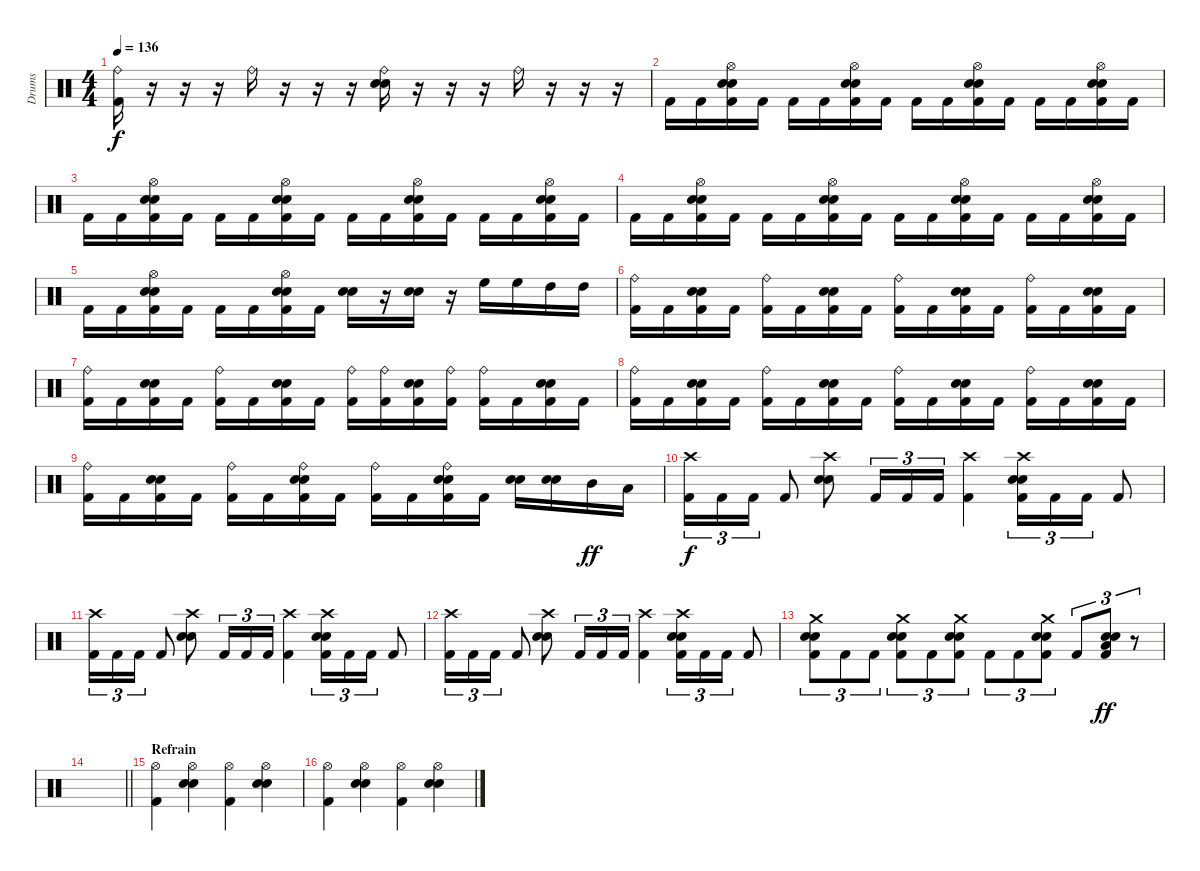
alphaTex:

\track ("Drums" "Drums") {instrument percussion}
\staff {score}
\articulation defaults
\ts (4 4)
\tempo 136
\clef neutral
\ks c
("Ride (bell)" "Kick (hit) 2").16{dy f} r.16 r.16 r.16 "Ride (bell)".16 r.16 r.16 r.16 ("Ride (bell)" "Electric Snare (hit)" "Snare (hit) 2").16 r.16 r.16 r.16 "Ride (bell)".16 r.16 r.16 r.16 |
"Kick (hit) 2".16 "Kick (hit) 2".16 ("Hi-Hat (open)" "Electric Snare (hit)" "Snare (hit) 2" "Kick (hit) 2").16 "Kick (hit) 2".16 "Kick (hit) 2".16 "Kick (hit) 2".16 ("Hi-Hat (open)" "Electric Snare (hit)" "Snare (hit) 2" "Kick (hit) 2").16 "Kick (hit) 2".16 "Kick (hit) 2".16 "Kick (hit) 2".16 ("Hi-Hat (open)" "Electric Snare (hit)" "Snare (hit) 2" "Kick (hit) 2").16 "Kick (hit) 2".16 "Kick (hit) 2".16 "Kick (hit) 2".16 ("Hi-Hat (open)" "Electric Snare (hit)" "Snare (hit) 2" "Kick (hit) 2").16 "Kick (hit) 2".16 |
"Kick (hit) 2".16 "Kick (hit) 2".16 ("Hi-Hat (open)" "Electric Snare (hit)" "Snare (hit) 2" "Kick (hit) 2").16 "Kick (hit) 2".16 "Kick (hit) 2".16 "Kick (hit) 2".16 ("Hi-Hat (open)" "Electric Snare (hit)" "Snare (hit) 2" "Kick (hit) 2").16 "Kick (hit) 2".16 "Kick (hit) 2".16 "Kick (hit) 2".16 ("Hi-Hat (open)" "Electric Snare (hit)" "Snare (hit) 2" "Kick (hit) 2").16 "Kick (hit) 2".16 "Kick (hit) 2".16 "Kick (hit) 2".16 ("Hi-Hat (open)" "Electric Snare (hit)" "Snare (hit) 2" "Kick (hit) 2").16 "Kick (hit) 2".16 |
"Kick (hit) 2".16 "Kick (hit) 2".16 ("Hi-Hat (open)" "Electric Snare (hit)" "Snare (hit) 2" "Kick (hit) 2").16 "Kick (hit) 2".16 "Kick (hit) 2".16 "Kick (hit) 2".16 ("Hi-Hat (open)" "Electric Snare (hit)" "Snare (hit) 2" "Kick (hit) 2").16 "Kick (hit) 2".16 "Kick (hit) 2".16 "Kick (hit) 2".16 ("Hi-Hat (open)" "Electric Snare (hit)" "Snare (hit) 2" "Kick (hit) 2").16 "Kick (hit) 2".16 "Kick (hit) 2".16 "Kick (hit) 2".16 ("Hi-Hat (open)" "Electric Snare (hit)" "Snare (hit) 2" "Kick (hit) 2").16 "Kick (hit) 2".16 |
"Kick (hit) 2".16 "Kick (hit) 2".16 ("Hi-Hat (open)" "Electric Snare (hit)" "Snare (hit) 2" "Kick (hit) 2").16 "Kick (hit) 2".16 "Kick (hit) 2".16 "Kick (hit) 2".16 ("Hi-Hat (open)" "Electric Snare (hit)" "Snare (hit) 2" "Kick (hit) 2").16 "Kick (hit) 2".16 ("Electric Snare (hit)" "Snare (hit) 2").16 r.16 ("Electric Snare (hit)" "Snare (hit) 2").16 r.16 "High Floor Tom (hit)".16 "High Floor Tom (hit)".16 "High Tom (hit)".16 "High Tom (hit)".16 |
("Ride (bell)" "Kick (hit) 2").16 "Kick (hit) 2".16 ("Electric Snare (hit)" "Snare (hit) 2" "Kick (hit) 2").16 "Kick (hit) 2".16 ("Ride (bell)" "Kick (hit) 2").16 "Kick (hit) 2".16 ("Electric Snare (hit)" "Snare (hit) 2" "Kick (hit) 2").16 "Kick (hit) 2".16 ("Ride (bell)" "Kick (hit) 2").16 "Kick (hit) 2".16 ("Electric Snare (hit)" "Snare (hit) 2" "Kick (hit) 2").16 "Kick (hit) 2".16 ("Ride (bell)" "Kick (hit) 2").16 "Kick (hit) 2".16 ("Electric Snare (hit)" "Snare (hit) 2" "Kick (hit) 2").16 "Kick (hit) 2".16 |
("Ride (bell)" "Kick (hit) 2").16 "Kick (hit) 2".16 ("Electric Snare (hit)" "Snare (hit) 2" "Kick (hit) 2").16 "Kick (hit) 2".16 ("Ride (bell)" "Kick (hit) 2").16 "Kick (hit) 2".16 ("Electric Snare (hit)" "Snare (hit) 2" "Kick (hit) 2").16 "Kick (hit) 2".16 ("Ride (bell)" "Kick (hit) 2").16 ("Ride (bell)" "Kick (hit) 2").16 ("Electric Snare (hit)" "Snare (hit) 2" "Kick (hit) 2").16 ("Ride (bell)" "Kick (hit) 2").16 ("Ride (bell)" "Kick (hit) 2").16 "Kick (hit) 2".16 ("Electric Snare (hit)" "Snare (hit) 2" "Kick (hit) 2").16 "Kick (hit) 2".16 |
("Ride (bell)" "Kick (hit) 2").16 "Kick (hit) 2".16 ("Electric Snare (hit)" "Snare (hit) 2" "Kick (hit) 2").16 "Kick (hit) 2".16 ("Ride (bell)" "Kick (hit) 2").16 "Kick (hit) 2".16 ("Electric Snare (hit)" "Snare (hit) 2" "Kick (hit) 2").16 "Kick (hit) 2".16 ("Ride (bell)" "Kick (hit) 2").16 "Kick (hit) 2".16 ("Electric Snare (hit)" "Snare (hit) 2" "Kick (hit) 2").16 "Kick (hit) 2".16 ("Ride (bell)" "Kick (hit) 2").16 "Kick (hit) 2".16 ("Electric Snare (hit)" "Snare (hit) 2" "Kick (hit) 2").16 "Kick (hit) 2".16 |
("Ride (bell)" "Kick (hit) 2").16 "Kick (hit) 2".16 ("Electric Snare (hit)" "Snare (hit) 2" "Kick (hit) 2").16 "Kick (hit) 2".16 ("Ride (bell)" "Kick (hit) 2").16 "Kick (hit) 2".16 ("Ride (bell)" "Electric Snare (hit)" "Snare (hit) 2" "Kick (hit) 2").16 "Kick (hit) 2".16 ("Ride (bell)" "Kick (hit) 2").16 "Kick (hit) 2".16 ("Ride (bell)" "Electric Snare (hit)" "Snare (hit) 2" "Kick (hit) 2").16 "Kick (hit) 2".16 ("Electric Snare (hit)" "Snare (hit) 2").16 ("Electric Snare (hit)" "Snare (hit) 2").16 "Mid Tom (hit)".16{dy ff} "Low Tom (hit)".16 |
("Crash high (hit)" "Kick (hit) 2").16{tu (3 2) dy f} "Kick (hit) 2".16{tu (3 2)} "Kick (hit) 2".16{tu (3 2)} "Kick (hit) 2".8 ("Crash high (hit)" "Electric Snare (hit)" "Snare (hit) 2").8 "Kick (hit) 2".16{tu (3 2)} "Kick (hit) 2".16{tu (3 2)} "Kick (hit) 2".16{tu (3 2)} ("Crash high (hit)" "Kick (hit) 2").4 ("Crash high (hit)" "Electric Snare (hit)" "Snare (hit) 2" "Kick (hit) 2").16{tu (3 2)} "Kick (hit) 2".16{tu (3 2)} "Kick (hit) 2".16{tu (3 2)} "Kick (hit) 2".8 |
("Crash high (hit)" "Kick (hit) 2").16{tu (3 2)} "Kick (hit) 2".16{tu (3 2)} "Kick (hit) 2".16{tu (3 2)} "Kick (hit) 2".8 ("Crash high (hit)" "Electric Snare (hit)" "Snare (hit) 2").8 "Kick (hit) 2".16{tu (3 2)} "Kick (hit) 2".16{tu (3 2)} "Kick (hit) 2".16{tu (3 2)} ("Crash high (hit)" "Kick (hit) 2").4 ("Crash high (hit)" "Electric Snare (hit)" "Snare (hit) 2" "Kick (hit) 2").16{tu (3 2)} "Kick (hit) 2".16{tu (3 2)} "Kick (hit) 2".16{tu (3 2)} "Kick (hit) 2".8 |
("Crash high (hit)" "Kick (hit) 2").16{tu (3 2)} "Kick (hit) 2".16{tu (3 2)} "Kick (hit) 2".16{tu (3 2)} "Kick (hit) 2".8 ("Crash high (hit)" "Electric Snare (hit)" "Snare (hit) 2").8 "Kick (hit) 2".16{tu (3 2)} "Kick (hit) 2".16{tu (3 2)} "Kick (hit) 2".16{tu (3 2)} ("Crash high (hit)" "Kick (hit) 2").4 ("Crash high (hit)" "Electric Snare (hit)" "Snare (hit) 2" "Kick (hit) 2").16{tu (3 2)} "Kick (hit) 2".16{tu (3 2)} "Kick (hit) 2".16{tu (3 2)} "Kick (hit) 2".8 |
("Crash medium (hit)" "Electric Snare (hit)" "Snare (hit) 2" "Kick (hit) 2").8{tu (3 2)} "Kick (hit) 2".8{tu (3 2)} "Kick (hit) 2".8{tu (3 2)} ("Crash medium (hit)" "Electric Snare (hit)" "Snare (hit) 2" "Kick (hit) 2").8{tu (3 2)} "Kick (hit) 2".8{tu (3 2)} ("Crash medium (hit)" "Electric Snare (hit)" "Snare (hit) 2" "Kick (hit) 2").8{tu (3 2)} "Kick (hit) 2".8{tu (3 2)} "Kick (hit) 2".8{tu (3 2)} ("Crash medium (hit)" "Electric Snare (hit)" "Snare (hit) 2" "Kick (hit) 2").8{tu (3 2)} "Kick (hit) 2".8{tu (3 2)} ("Electric Snare (hit)" "Snare (hit) 2" "Low Tom (hit)" "Kick (hit) 2").8{tu (3 2) dy ff} r.8{tu (3 2)} |
\barLineRight lightlight
|
\section ("" "Refrain")
("Hi-Hat (open)" "Kick (hit) 2").4 ("Hi-Hat (open)" "Electric Snare (hit)" "Snare (hit) 2").4 ("Hi-Hat (open)" "Kick (hit) 2").4 ("Hi-Hat (open)" "Electric Snare (hit)" "Snare (hit) 2").4 |
("Hi-Hat (open)" "Kick (hit) 2").4 ("Hi-Hat (open)" "Electric Snare (hit)" "Snare (hit) 2").4 ("Hi-Hat (open)" "Kick (hit) 2").4 ("Hi-Hat (open)" "Electric Snare (hit)" "Snare (hit) 2").4
